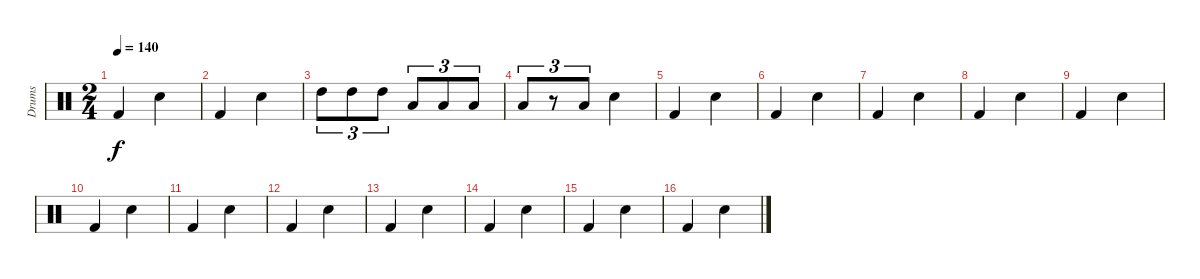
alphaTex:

\track ("Drums" "Drums") {instrument percussion}
\staff {score}
\articulation defaults
\ts (2 4)
\tempo 140
\clef neutral
\ks c "Kick (hit) 2".4{dy f} "Snare (hit) 2".4
|
"Kick (hit) 2".4 "Snare (hit) 2".4 |
"High Tom (hit)".8{tu (3 2)} "High Tom (hit)".8{tu (3 2)} "High Tom (hit)".8{tu (3 2)} "Low Tom (hit)".8{tu (3 2)} "Low Tom (hit)".8{tu (3 2)} "Low Tom (hit)".8{tu (3 2)} |
"Low Floor Tom (hit)".8{tu (3 2)} r.8{tu (3 2)} "Low Floor Tom (hit)".8{tu (3 2)} "Snare (hit) 2".4 |
"Kick (hit) 2".4 "Snare (hit) 2".4 |
"Kick (hit) 2".4 "Snare (hit) 2".4 |
"Kick (hit) 2".4 "Snare (hit) 2".4 |
"Kick (hit) 2".4 "Snare (hit) 2".4 |
"Kick (hit) 2".4 "Snare (hit) 2".4 |
"Kick (hit) 2".4 "Snare (hit) 2".4 |
"Kick (hit) 2".4 "Snare (hit) 2".4 |
"Kick (hit) 2".4 "Snare (hit) 2".4 |
"Kick (hit) 2".4 "Snare (hit) 2".4 |
"Kick (hit) 2".4 "Snare (hit) 2".4 |
"Kick (hit) 2".4 "Snare (hit) 2".4 |
"Kick (hit) 2".4 "Snare (hit) 2".4
